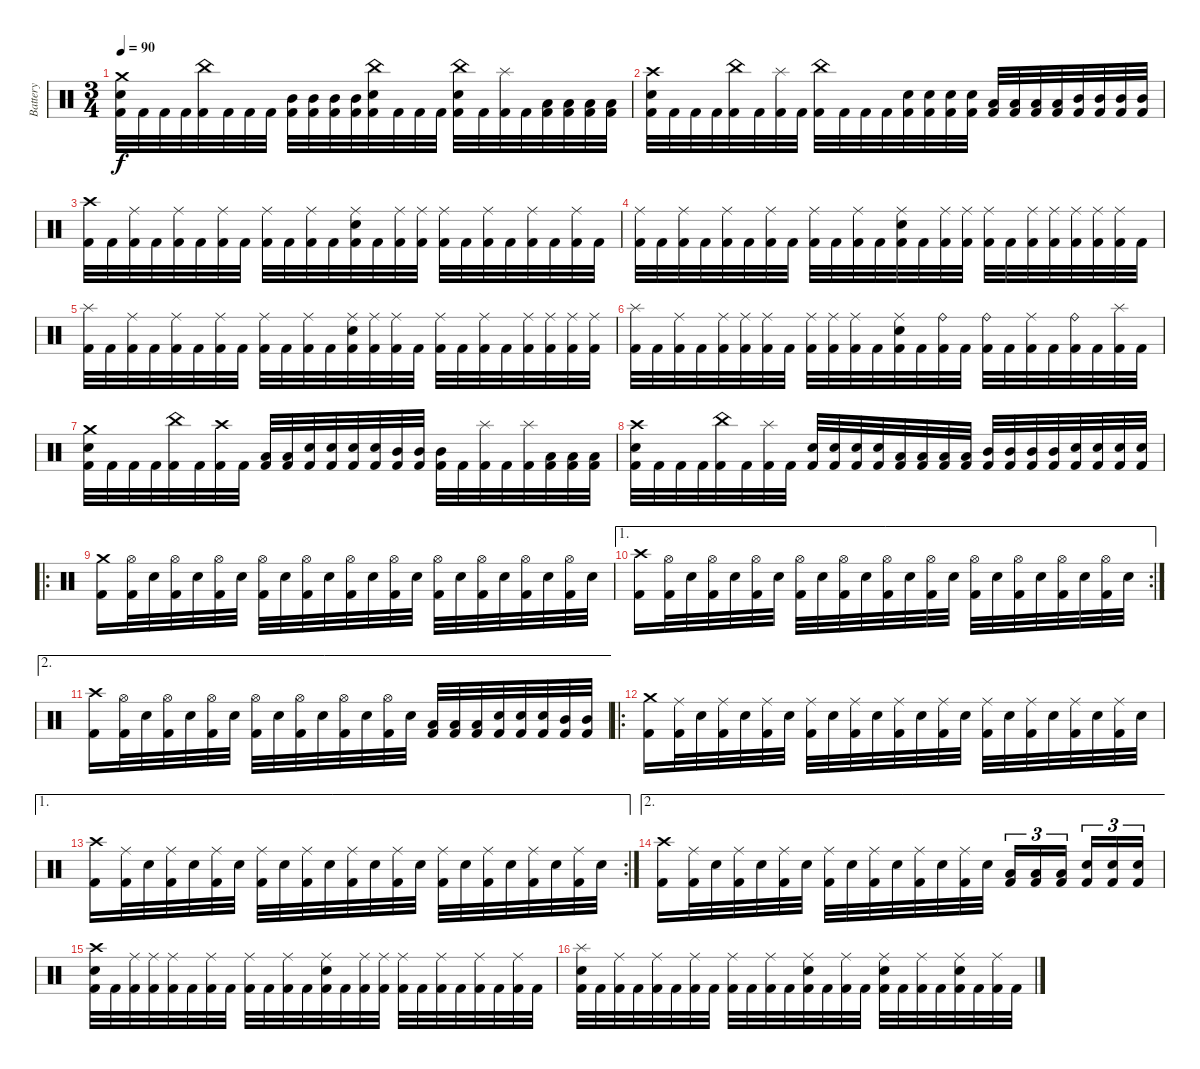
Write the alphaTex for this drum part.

\track ("Battery" "Battery") {instrument percussion}
\staff {score}
\articulation defaults
\ts (3 4)
\tempo 90
\clef neutral
\ks c
("Kick (hit) 2" "Snare (hit) 2" "Crash medium (hit)").32{dy f} "Kick (hit) 2".32 "Kick (hit) 2".32 "Kick (hit) 2".32 ("Kick (hit) 2" "China (hit)").32 "Kick (hit) 2".32 "Kick (hit) 2".32 "Kick (hit) 2".32 ("Kick (hit) 2" "Mid Tom (hit)").32 ("Kick (hit) 2" "Mid Tom (hit)").32 ("Kick (hit) 2" "Mid Tom (hit)").32 ("Kick (hit) 2" "Mid Tom (hit)").32 ("Kick (hit) 2" "Snare (hit) 2" "China (hit)").32 "Kick (hit) 2".32 "Kick (hit) 2".32 "Kick (hit) 2".32 ("Kick (hit) 2" "Snare (hit) 2" "China (hit)").32 "Kick (hit) 2".32 ("Kick (hit) 2" "Splash (hit)").32 "Kick (hit) 2".32 ("Kick (hit) 2" "Low Tom (hit)").32 ("Kick (hit) 2" "Low Tom (hit)").32 ("Kick (hit) 2" "Low Tom (hit)").32 ("Kick (hit) 2" "Low Tom (hit)").32 |
("Kick (hit) 2" "Snare (hit) 2" "Crash high (hit)").32 "Kick (hit) 2".32 "Kick (hit) 2".32 "Kick (hit) 2".32 ("Kick (hit) 2" "China (hit)").32 "Kick (hit) 2".32 ("Kick (hit) 2" "Splash (hit)").32 "Kick (hit) 2".32 ("Kick (hit) 2" "China (hit)").32 "Kick (hit) 2".32 "Kick (hit) 2".32 "Kick (hit) 2".32 ("Kick (hit) 2" "Snare (hit) 2").32 ("Kick (hit) 2" "Snare (hit) 2").32 ("Kick (hit) 2" "Snare (hit) 2").32 ("Kick (hit) 2" "Snare (hit) 2").32 ("Kick (hit) 2" "Low Tom (hit)").32 ("Kick (hit) 2" "Low Tom (hit)").32 ("Kick (hit) 2" "Low Tom (hit)").32 ("Kick (hit) 2" "Low Tom (hit)").32 ("Kick (hit) 2" "Mid Tom (hit)").32 ("Kick (hit) 2" "Mid Tom (hit)").32 ("Kick (hit) 2" "Mid Tom (hit)").32 ("Kick (hit) 2" "Mid Tom (hit)").32 |
("Kick (hit) 2" "Crash high (hit)").32 "Kick (hit) 2".32 ("Kick (hit) 2" "Ride (middle)").32 "Kick (hit) 2".32 ("Kick (hit) 2" "Ride (middle)").32 "Kick (hit) 2".32 ("Kick (hit) 2" "Ride (middle)").32 "Kick (hit) 2".32 ("Kick (hit) 2" "Ride (middle)").32 "Kick (hit) 2".32 ("Kick (hit) 2" "Ride (middle)").32 "Kick (hit) 2".32 ("Kick (hit) 2" "Snare (hit) 2" "Ride (middle)").32 "Kick (hit) 2".32 ("Kick (hit) 2" "Ride (middle)").32 ("Kick (hit) 2" "Ride (middle)").32 ("Kick (hit) 2" "Ride (middle)").32 "Kick (hit) 2".32 ("Kick (hit) 2" "Ride (middle)").32 "Kick (hit) 2".32 ("Kick (hit) 2" "Ride (middle)").32 "Kick (hit) 2".32 ("Kick (hit) 2" "Ride (middle)").32 "Kick (hit) 2".32 |
("Kick (hit) 2" "Ride (middle)").32 "Kick (hit) 2".32 ("Kick (hit) 2" "Ride (middle)").32 "Kick (hit) 2".32 ("Kick (hit) 2" "Ride (middle)").32 "Kick (hit) 2".32 ("Kick (hit) 2" "Ride (middle)").32 "Kick (hit) 2".32 ("Kick (hit) 2" "Ride (middle)").32 "Kick (hit) 2".32 ("Kick (hit) 2" "Ride (middle)").32 "Kick (hit) 2".32 ("Kick (hit) 2" "Snare (hit) 2" "Ride (middle)").32 "Kick (hit) 2".32 ("Kick (hit) 2" "Ride (middle)").32 ("Kick (hit) 2" "Ride (middle)").32 ("Kick (hit) 2" "Ride (middle)").32 "Kick (hit) 2".32 ("Kick (hit) 2" "Ride (middle)").32 ("Kick (hit) 2" "Ride (middle)").32 ("Kick (hit) 2" "Ride (middle)").32 ("Kick (hit) 2" "Ride (middle)").32 ("Kick (hit) 2" "Ride (middle)").32 "Kick (hit) 2".32 |
("Kick (hit) 2" "Splash (hit)").32 "Kick (hit) 2".32 ("Kick (hit) 2" "Ride (middle)").32 "Kick (hit) 2".32 ("Kick (hit) 2" "Ride (middle)").32 "Kick (hit) 2".32 ("Kick (hit) 2" "Ride (middle)").32 "Kick (hit) 2".32 ("Kick (hit) 2" "Ride (middle)").32 "Kick (hit) 2".32 ("Kick (hit) 2" "Ride (middle)").32 "Kick (hit) 2".32 ("Kick (hit) 2" "Snare (hit) 2" "Ride (middle)").32 ("Kick (hit) 2" "Ride (middle)").32 ("Kick (hit) 2" "Ride (middle)").32 "Kick (hit) 2".32 ("Kick (hit) 2" "Ride (middle)").32 "Kick (hit) 2".32 ("Kick (hit) 2" "Ride (middle)").32 "Kick (hit) 2".32 ("Kick (hit) 2" "Ride (middle)").32 ("Kick (hit) 2" "Ride (middle)").32 ("Kick (hit) 2" "Ride (middle)").32 ("Kick (hit) 2" "Ride (middle)").32 |
("Kick (hit) 2" "Splash (hit)").32 "Kick (hit) 2".32 ("Kick (hit) 2" "Ride (middle)").32 "Kick (hit) 2".32 ("Kick (hit) 2" "Ride (middle)").32 ("Kick (hit) 2" "Ride (middle)").32 ("Kick (hit) 2" "Ride (middle)").32 "Kick (hit) 2".32 ("Kick (hit) 2" "Ride (middle)").32 ("Kick (hit) 2" "Ride (middle)").32 ("Kick (hit) 2" "Ride (middle)").32 "Kick (hit) 2".32 ("Kick (hit) 2" "Snare (hit) 2" "Ride (middle)").32 "Kick (hit) 2".32 ("Kick (hit) 2" "Ride (bell)").32 "Kick (hit) 2".32 ("Kick (hit) 2" "Ride (bell)").32 "Kick (hit) 2".32 ("Kick (hit) 2" "Ride (middle)").32 "Kick (hit) 2".32 ("Kick (hit) 2" "Ride (bell)").32 "Kick (hit) 2".32 ("Kick (hit) 2" "Splash (hit)").32 "Kick (hit) 2".32 |
("Kick (hit) 2" "Snare (hit) 2" "Crash medium (hit)").32 "Kick (hit) 2".32 "Kick (hit) 2".32 "Kick (hit) 2".32 ("Kick (hit) 2" "China (hit)").32 "Kick (hit) 2".32 ("Kick (hit) 2" "Crash high (hit)").32 "Kick (hit) 2".32 ("Kick (hit) 2" "Low Tom (hit)").32 ("Kick (hit) 2" "Low Tom (hit)").32 ("Kick (hit) 2" "Snare (hit) 2").32 ("Kick (hit) 2" "Snare (hit) 2").32 ("Kick (hit) 2" "Snare (hit) 2").32 ("Kick (hit) 2" "Snare (hit) 2").32 ("Kick (hit) 2" "Mid Tom (hit)").32 ("Kick (hit) 2" "Mid Tom (hit)").32 ("Kick (hit) 2" "Mid Tom (hit)").32 "Kick (hit) 2".32 ("Kick (hit) 2" "Splash (hit)").32 "Kick (hit) 2".32 ("Kick (hit) 2" "Splash (hit)").32 ("Kick (hit) 2" "Low Tom (hit)").32 ("Kick (hit) 2" "Low Tom (hit)").32 ("Kick (hit) 2" "Low Tom (hit)").32 |
("Kick (hit) 2" "Snare (hit) 2" "Crash high (hit)").32 "Kick (hit) 2".32 "Kick (hit) 2".32 "Kick (hit) 2".32 ("Kick (hit) 2" "China (hit)").32 "Kick (hit) 2".32 ("Kick (hit) 2" "Splash (hit)").32 "Kick (hit) 2".32 ("Kick (hit) 2" "Snare (hit) 2").32 ("Kick (hit) 2" "Snare (hit) 2").32 ("Kick (hit) 2" "Snare (hit) 2").32 ("Kick (hit) 2" "Snare (hit) 2").32 ("Kick (hit) 2" "Low Tom (hit)").32 ("Kick (hit) 2" "Low Tom (hit)").32 ("Kick (hit) 2" "Low Tom (hit)").32 ("Kick (hit) 2" "Low Tom (hit)").32 ("Kick (hit) 2" "Mid Tom (hit)").32 ("Kick (hit) 2" "Mid Tom (hit)").32 ("Kick (hit) 2" "Mid Tom (hit)").32 ("Kick (hit) 2" "Mid Tom (hit)").32 ("Kick (hit) 2" "Snare (hit) 2").32 ("Kick (hit) 2" "Snare (hit) 2").32 ("Kick (hit) 2" "Snare (hit) 2").32 ("Kick (hit) 2" "Snare (hit) 2").32 |
\ro
("Kick (hit) 2" "Crash medium (hit)").16 ("Kick (hit) 2" "Hi-Hat (open)").32 "Snare (hit) 2".32 ("Kick (hit) 2" "Hi-Hat (open)").32 "Snare (hit) 2".32 ("Kick (hit) 2" "Hi-Hat (open)").32 "Snare (hit) 2".32 ("Kick (hit) 2" "Hi-Hat (open)").32 "Snare (hit) 2".32 ("Kick (hit) 2" "Hi-Hat (open)").32 "Snare (hit) 2".32 ("Kick (hit) 2" "Hi-Hat (open)").32 "Snare (hit) 2".32 ("Kick (hit) 2" "Hi-Hat (open)").32 "Snare (hit) 2".32 ("Kick (hit) 2" "Hi-Hat (open)").32 "Snare (hit) 2".32 ("Kick (hit) 2" "Hi-Hat (open)").32 "Snare (hit) 2".32 ("Kick (hit) 2" "Hi-Hat (open)").32 "Snare (hit) 2".32 ("Kick (hit) 2" "Hi-Hat (open)").32 "Snare (hit) 2".32 |
\ae 1
\rc 2
("Kick (hit) 2" "Crash high (hit)").16 ("Kick (hit) 2" "Hi-Hat (open)").32 "Snare (hit) 2".32 ("Kick (hit) 2" "Hi-Hat (open)").32 "Snare (hit) 2".32 ("Kick (hit) 2" "Hi-Hat (open)").32 "Snare (hit) 2".32 ("Kick (hit) 2" "Hi-Hat (open)").32 "Snare (hit) 2".32 ("Kick (hit) 2" "Hi-Hat (open)").32 "Snare (hit) 2".32 ("Kick (hit) 2" "Hi-Hat (open)").32 "Snare (hit) 2".32 ("Kick (hit) 2" "Hi-Hat (open)").32 "Snare (hit) 2".32 ("Kick (hit) 2" "Hi-Hat (open)").32 "Snare (hit) 2".32 ("Kick (hit) 2" "Hi-Hat (open)").32 "Snare (hit) 2".32 ("Kick (hit) 2" "Hi-Hat (open)").32 "Snare (hit) 2".32 ("Kick (hit) 2" "Hi-Hat (open)").32 "Snare (hit) 2".32 |
\ae 2
("Kick (hit) 2" "Crash high (hit)").16 ("Kick (hit) 2" "Hi-Hat (open)").32 "Snare (hit) 2".32 ("Kick (hit) 2" "Hi-Hat (open)").32 "Snare (hit) 2".32 ("Kick (hit) 2" "Hi-Hat (open)").32 "Snare (hit) 2".32 ("Kick (hit) 2" "Hi-Hat (open)").32 "Snare (hit) 2".32 ("Kick (hit) 2" "Hi-Hat (open)").32 "Snare (hit) 2".32 ("Kick (hit) 2" "Hi-Hat (open)").32 "Snare (hit) 2".32 ("Kick (hit) 2" "Hi-Hat (open)").32 "Snare (hit) 2".32 ("Kick (hit) 2" "Low Tom (hit)").32 ("Kick (hit) 2" "Low Tom (hit)").32 ("Kick (hit) 2" "Low Tom (hit)").32 ("Kick (hit) 2" "Snare (hit) 2").32 ("Kick (hit) 2" "Snare (hit) 2").32 ("Kick (hit) 2" "Snare (hit) 2").32 ("Kick (hit) 2" "Mid Tom (hit)").32 ("Kick (hit) 2" "Mid Tom (hit)").32 |
\ro
("Kick (hit) 2" "Crash medium (hit)").16 ("Kick (hit) 2" "Ride (middle)").32 "Snare (hit) 2".32 ("Kick (hit) 2" "Ride (middle)").32 "Snare (hit) 2".32 ("Kick (hit) 2" "Ride (middle)").32 "Snare (hit) 2".32 ("Kick (hit) 2" "Ride (middle)").32 "Snare (hit) 2".32 ("Kick (hit) 2" "Ride (middle)").32 "Snare (hit) 2".32 ("Kick (hit) 2" "Ride (middle)").32 "Snare (hit) 2".32 ("Kick (hit) 2" "Ride (middle)").32 "Snare (hit) 2".32 ("Kick (hit) 2" "Ride (middle)").32 "Snare (hit) 2".32 ("Kick (hit) 2" "Ride (middle)").32 "Snare (hit) 2".32 ("Kick (hit) 2" "Ride (middle)").32 "Snare (hit) 2".32 ("Kick (hit) 2" "Ride (middle)").32 "Snare (hit) 2".32 |
\ae 1
\rc 2
("Kick (hit) 2" "Crash high (hit)").16 ("Kick (hit) 2" "Ride (middle)").32 "Snare (hit) 2".32 ("Kick (hit) 2" "Ride (middle)").32 "Snare (hit) 2".32 ("Kick (hit) 2" "Ride (middle)").32 "Snare (hit) 2".32 ("Kick (hit) 2" "Ride (middle)").32 "Snare (hit) 2".32 ("Kick (hit) 2" "Ride (middle)").32 "Snare (hit) 2".32 ("Kick (hit) 2" "Ride (middle)").32 "Snare (hit) 2".32 ("Kick (hit) 2" "Ride (middle)").32 "Snare (hit) 2".32 ("Kick (hit) 2" "Ride (middle)").32 "Snare (hit) 2".32 ("Kick (hit) 2" "Ride (middle)").32 "Snare (hit) 2".32 ("Kick (hit) 2" "Ride (middle)").32 "Snare (hit) 2".32 ("Kick (hit) 2" "Ride (middle)").32 "Snare (hit) 2".32 |
\ae 2
("Kick (hit) 2" "Crash high (hit)").16 ("Kick (hit) 2" "Ride (middle)").32 "Snare (hit) 2".32 ("Kick (hit) 2" "Ride (middle)").32 "Snare (hit) 2".32 ("Kick (hit) 2" "Ride (middle)").32 "Snare (hit) 2".32 ("Kick (hit) 2" "Ride (middle)").32 "Snare (hit) 2".32 ("Kick (hit) 2" "Ride (middle)").32 "Snare (hit) 2".32 ("Kick (hit) 2" "Ride (middle)").32 "Snare (hit) 2".32 ("Kick (hit) 2" "Ride (middle)").32 "Snare (hit) 2".32 ("Kick (hit) 2" "Low Tom (hit)").16{tu (3 2)} ("Kick (hit) 2" "Low Tom (hit)").16{tu (3 2)} ("Kick (hit) 2" "Low Tom (hit)").16{tu (3 2)} ("Kick (hit) 2" "Snare (hit) 2").16{tu (3 2)} ("Kick (hit) 2" "Snare (hit) 2").16{tu (3 2)} ("Kick (hit) 2" "Snare (hit) 2").16{tu (3 2)} |
("Kick (hit) 2" "Snare (hit) 2" "Crash high (hit)").32 "Kick (hit) 2".32 ("Kick (hit) 2" "Ride (middle)").32 ("Kick (hit) 2" "Ride (middle)").32 ("Kick (hit) 2" "Ride (middle)").32 "Kick (hit) 2".32 ("Kick (hit) 2" "Ride (middle)").32 "Kick (hit) 2".32 ("Kick (hit) 2" "Ride (middle)").32 "Kick (hit) 2".32 ("Kick (hit) 2" "Ride (middle)").32 "Kick (hit) 2".32 ("Kick (hit) 2" "Snare (hit) 2" "Ride (middle)").32 "Kick (hit) 2".32 ("Kick (hit) 2" "Ride (middle)").32 ("Kick (hit) 2" "Ride (middle)").32 ("Kick (hit) 2" "Ride (middle)").32 "Kick (hit) 2".32 ("Kick (hit) 2" "Ride (middle)").32 "Kick (hit) 2".32 ("Kick (hit) 2" "Ride (middle)").32 "Kick (hit) 2".32 ("Kick (hit) 2" "Ride (middle)").32 "Kick (hit) 2".32 |
("Kick (hit) 2" "Snare (hit) 2" "Splash (hit)").32 "Kick (hit) 2".32 ("Kick (hit) 2" "Ride (middle)").32 "Kick (hit) 2".32 ("Kick (hit) 2" "Ride (middle)").32 "Kick (hit) 2".32 ("Kick (hit) 2" "Ride (middle)").32 "Kick (hit) 2".32 ("Kick (hit) 2" "Ride (middle)").32 "Kick (hit) 2".32 ("Kick (hit) 2" "Ride (middle)").32 "Kick (hit) 2".32 ("Kick (hit) 2" "Snare (hit) 2" "Ride (middle)").32 "Kick (hit) 2".32 ("Kick (hit) 2" "Ride (middle)").32 "Kick (hit) 2".32 ("Kick (hit) 2" "Snare (hit) 2" "Ride (middle)").32 "Kick (hit) 2".32 ("Kick (hit) 2" "Ride (middle)").32 "Kick (hit) 2".32 ("Kick (hit) 2" "Snare (hit) 2" "Ride (middle)").32 "Kick (hit) 2".32 ("Kick (hit) 2" "Ride (middle)").32 "Kick (hit) 2".32
